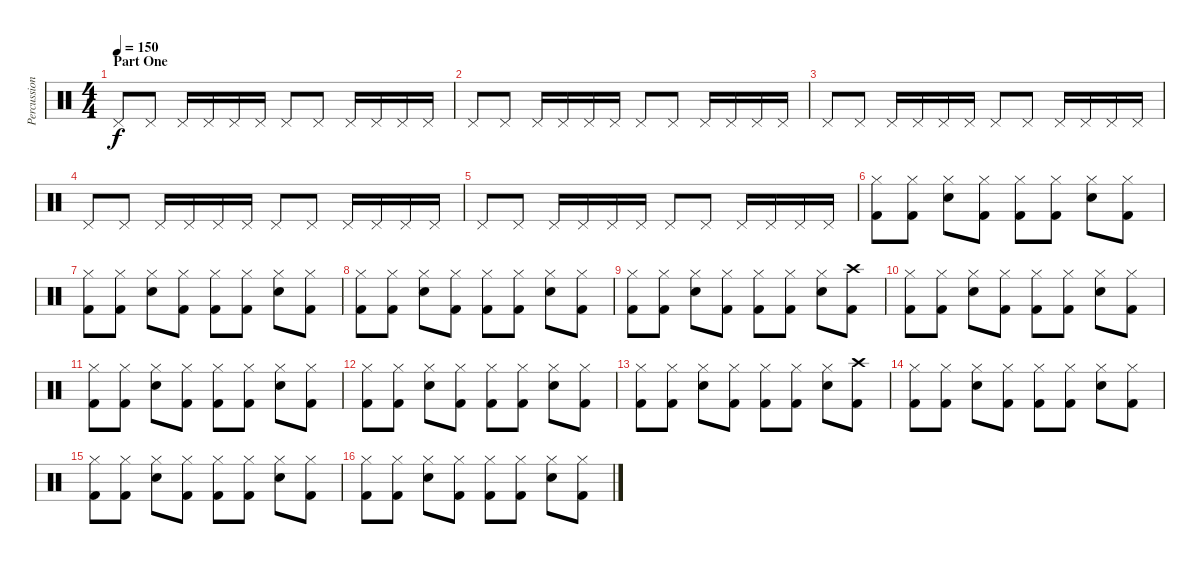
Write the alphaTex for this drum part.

\track ("Percussion" "Percussion") {instrument percussion}
\staff {score}
\articulation defaults
\ts (4 4)
\section ("" "Part One")
\tempo 150
\clef neutral
\ks c "Pedal Hi-Hat (hit)".8{dy f} "Pedal Hi-Hat (hit)".8 "Pedal Hi-Hat (hit)".16 "Pedal Hi-Hat (hit)".16 "Pedal Hi-Hat (hit)".16 "Pedal Hi-Hat (hit)".16 "Pedal Hi-Hat (hit)".8 "Pedal Hi-Hat (hit)".8 "Pedal Hi-Hat (hit)".16 "Pedal Hi-Hat (hit)".16 "Pedal Hi-Hat (hit)".16 "Pedal Hi-Hat (hit)".16
|
"Pedal Hi-Hat (hit)".8 "Pedal Hi-Hat (hit)".8 "Pedal Hi-Hat (hit)".16 "Pedal Hi-Hat (hit)".16 "Pedal Hi-Hat (hit)".16 "Pedal Hi-Hat (hit)".16 "Pedal Hi-Hat (hit)".8 "Pedal Hi-Hat (hit)".8 "Pedal Hi-Hat (hit)".16 "Pedal Hi-Hat (hit)".16 "Pedal Hi-Hat (hit)".16 "Pedal Hi-Hat (hit)".16 |
"Pedal Hi-Hat (hit)".8 "Pedal Hi-Hat (hit)".8 "Pedal Hi-Hat (hit)".16 "Pedal Hi-Hat (hit)".16 "Pedal Hi-Hat (hit)".16 "Pedal Hi-Hat (hit)".16 "Pedal Hi-Hat (hit)".8 "Pedal Hi-Hat (hit)".8 "Pedal Hi-Hat (hit)".16 "Pedal Hi-Hat (hit)".16 "Pedal Hi-Hat (hit)".16 "Pedal Hi-Hat (hit)".16 |
"Pedal Hi-Hat (hit)".8 "Pedal Hi-Hat (hit)".8 "Pedal Hi-Hat (hit)".16 "Pedal Hi-Hat (hit)".16 "Pedal Hi-Hat (hit)".16 "Pedal Hi-Hat (hit)".16 "Pedal Hi-Hat (hit)".8 "Pedal Hi-Hat (hit)".8 "Pedal Hi-Hat (hit)".16 "Pedal Hi-Hat (hit)".16 "Pedal Hi-Hat (hit)".16 "Pedal Hi-Hat (hit)".16 |
"Pedal Hi-Hat (hit)".8 "Pedal Hi-Hat (hit)".8 "Pedal Hi-Hat (hit)".16 "Pedal Hi-Hat (hit)".16 "Pedal Hi-Hat (hit)".16 "Pedal Hi-Hat (hit)".16 "Pedal Hi-Hat (hit)".8 "Pedal Hi-Hat (hit)".8 "Pedal Hi-Hat (hit)".16 "Pedal Hi-Hat (hit)".16 "Pedal Hi-Hat (hit)".16 "Pedal Hi-Hat (hit)".16 |
("Hi-Hat (closed)" "Kick (hit) 2").8 ("Hi-Hat (closed)" "Kick (hit) 2").8 ("Hi-Hat (closed)" "Electric Snare (hit)").8 ("Hi-Hat (closed)" "Kick (hit) 2").8 ("Hi-Hat (closed)" "Kick (hit) 2").8 ("Hi-Hat (closed)" "Kick (hit) 2").8 ("Hi-Hat (closed)" "Electric Snare (hit)").8 ("Hi-Hat (closed)" "Kick (hit) 2").8 |
("Hi-Hat (closed)" "Kick (hit) 2").8 ("Hi-Hat (closed)" "Kick (hit) 2").8 ("Hi-Hat (closed)" "Electric Snare (hit)").8 ("Hi-Hat (closed)" "Kick (hit) 2").8 ("Hi-Hat (closed)" "Kick (hit) 2").8 ("Hi-Hat (closed)" "Kick (hit) 2").8 ("Hi-Hat (closed)" "Electric Snare (hit)").8 ("Hi-Hat (closed)" "Kick (hit) 2").8 |
("Hi-Hat (closed)" "Kick (hit) 2").8 ("Hi-Hat (closed)" "Kick (hit) 2").8 ("Hi-Hat (closed)" "Electric Snare (hit)").8 ("Hi-Hat (closed)" "Kick (hit) 2").8 ("Hi-Hat (closed)" "Kick (hit) 2").8 ("Hi-Hat (closed)" "Kick (hit) 2").8 ("Hi-Hat (closed)" "Electric Snare (hit)").8 ("Hi-Hat (closed)" "Kick (hit) 2").8 |
("Hi-Hat (closed)" "Kick (hit) 2").8 ("Hi-Hat (closed)" "Kick (hit) 2").8 ("Hi-Hat (closed)" "Electric Snare (hit)").8 ("Hi-Hat (closed)" "Kick (hit) 2").8 ("Hi-Hat (closed)" "Kick (hit) 2").8 ("Hi-Hat (closed)" "Kick (hit) 2").8 ("Hi-Hat (closed)" "Electric Snare (hit)").8 ("Crash high (hit)" "Kick (hit) 2").8 |
("Hi-Hat (closed)" "Kick (hit) 2").8 ("Hi-Hat (closed)" "Kick (hit) 2").8 ("Hi-Hat (closed)" "Electric Snare (hit)").8 ("Hi-Hat (closed)" "Kick (hit) 2").8 ("Hi-Hat (closed)" "Kick (hit) 2").8 ("Hi-Hat (closed)" "Kick (hit) 2").8 ("Hi-Hat (closed)" "Electric Snare (hit)").8 ("Hi-Hat (closed)" "Kick (hit) 2").8 |
("Hi-Hat (closed)" "Kick (hit) 2").8 ("Hi-Hat (closed)" "Kick (hit) 2").8 ("Hi-Hat (closed)" "Electric Snare (hit)").8 ("Hi-Hat (closed)" "Kick (hit) 2").8 ("Hi-Hat (closed)" "Kick (hit) 2").8 ("Hi-Hat (closed)" "Kick (hit) 2").8 ("Hi-Hat (closed)" "Electric Snare (hit)").8 ("Hi-Hat (closed)" "Kick (hit) 2").8 |
("Hi-Hat (closed)" "Kick (hit) 2").8 ("Hi-Hat (closed)" "Kick (hit) 2").8 ("Hi-Hat (closed)" "Electric Snare (hit)").8 ("Hi-Hat (closed)" "Kick (hit) 2").8 ("Hi-Hat (closed)" "Kick (hit) 2").8 ("Hi-Hat (closed)" "Kick (hit) 2").8 ("Hi-Hat (closed)" "Electric Snare (hit)").8 ("Hi-Hat (closed)" "Kick (hit) 2").8 |
("Hi-Hat (closed)" "Kick (hit) 2").8 ("Hi-Hat (closed)" "Kick (hit) 2").8 ("Hi-Hat (closed)" "Electric Snare (hit)").8 ("Hi-Hat (closed)" "Kick (hit) 2").8 ("Hi-Hat (closed)" "Kick (hit) 2").8 ("Hi-Hat (closed)" "Kick (hit) 2").8 ("Hi-Hat (closed)" "Electric Snare (hit)").8 ("Crash high (hit)" "Kick (hit) 2").8 |
("Hi-Hat (closed)" "Kick (hit) 2").8 ("Hi-Hat (closed)" "Kick (hit) 2").8 ("Hi-Hat (closed)" "Electric Snare (hit)").8 ("Hi-Hat (closed)" "Kick (hit) 2").8 ("Hi-Hat (closed)" "Kick (hit) 2").8 ("Hi-Hat (closed)" "Kick (hit) 2").8 ("Hi-Hat (closed)" "Electric Snare (hit)").8 ("Hi-Hat (closed)" "Kick (hit) 2").8 |
("Hi-Hat (closed)" "Kick (hit) 2").8 ("Hi-Hat (closed)" "Kick (hit) 2").8 ("Hi-Hat (closed)" "Electric Snare (hit)").8 ("Hi-Hat (closed)" "Kick (hit) 2").8 ("Hi-Hat (closed)" "Kick (hit) 2").8 ("Hi-Hat (closed)" "Kick (hit) 2").8 ("Hi-Hat (closed)" "Electric Snare (hit)").8 ("Hi-Hat (closed)" "Kick (hit) 2").8 |
("Hi-Hat (closed)" "Kick (hit) 2").8 ("Hi-Hat (closed)" "Kick (hit) 2").8 ("Hi-Hat (closed)" "Electric Snare (hit)").8 ("Hi-Hat (closed)" "Kick (hit) 2").8 ("Hi-Hat (closed)" "Kick (hit) 2").8 ("Hi-Hat (closed)" "Kick (hit) 2").8 ("Hi-Hat (closed)" "Electric Snare (hit)").8 ("Hi-Hat (closed)" "Kick (hit) 2").8
